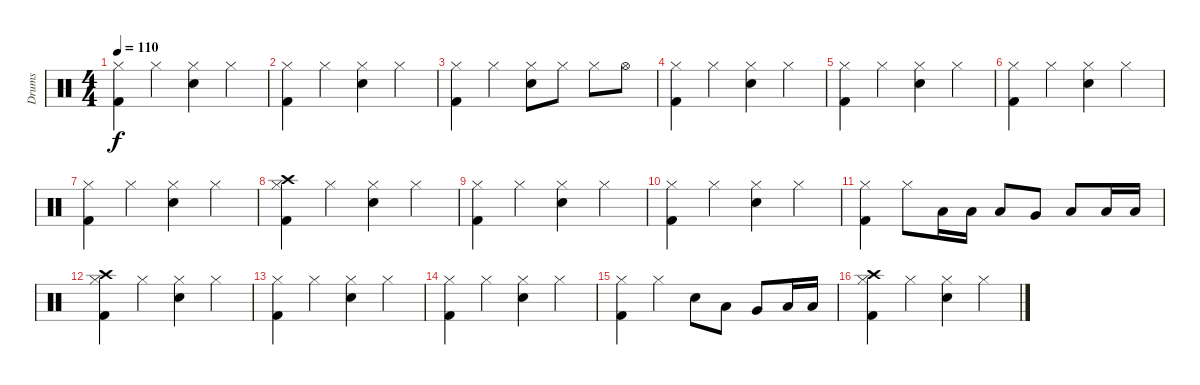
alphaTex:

\track ("Drums" "Drums") {instrument percussion}
\staff {score}
\articulation defaults
\ts (4 4)
\tempo 110
\clef neutral
\ks c
("Kick (hit) 2" "Hi-Hat (closed)").4{dy f} "Hi-Hat (closed)".4 ("Snare (hit) 2" "Hi-Hat (closed)").4 "Hi-Hat (closed)".4 |
("Kick (hit) 2" "Hi-Hat (closed)").4 "Hi-Hat (closed)".4 ("Snare (hit) 2" "Hi-Hat (closed)").4 "Hi-Hat (closed)".4 |
("Kick (hit) 2" "Hi-Hat (closed)").4 "Hi-Hat (closed)".4 ("Snare (hit) 2" "Hi-Hat (closed)").8 "Hi-Hat (closed)".8 "Hi-Hat (closed)".8 "Hi-Hat (open)".8 |
("Kick (hit) 2" "Hi-Hat (closed)").4 "Hi-Hat (closed)".4 ("Snare (hit) 2" "Hi-Hat (closed)").4 "Hi-Hat (closed)".4 |
("Kick (hit) 2" "Hi-Hat (closed)").4 "Hi-Hat (closed)".4 ("Snare (hit) 2" "Hi-Hat (closed)").4 "Hi-Hat (closed)".4 |
("Kick (hit) 2" "Hi-Hat (closed)").4 "Hi-Hat (closed)".4 ("Snare (hit) 2" "Hi-Hat (closed)").4 "Hi-Hat (closed)".4 |
("Kick (hit) 2" "Hi-Hat (closed)").4 "Hi-Hat (closed)".4 ("Snare (hit) 2" "Hi-Hat (closed)").4 "Hi-Hat (closed)".4 |
("Kick (hit) 2" "Hi-Hat (closed)" "Crash high (hit)").4 "Hi-Hat (closed)".4 ("Snare (hit) 2" "Hi-Hat (closed)").4 "Hi-Hat (closed)".4 |
("Kick (hit) 2" "Hi-Hat (closed)").4 "Hi-Hat (closed)".4 ("Snare (hit) 2" "Hi-Hat (closed)").4 "Hi-Hat (closed)".4 |
("Kick (hit) 2" "Hi-Hat (closed)").4 "Hi-Hat (closed)".4 ("Snare (hit) 2" "Hi-Hat (closed)").4 "Hi-Hat (closed)".4 |
("Kick (hit) 2" "Hi-Hat (closed)").4 "Hi-Hat (closed)".8 "Low Tom (hit)".16 "Low Tom (hit)".16 "Low Tom (hit)".8 "Very Low Tom (hit)".8 "Low Floor Tom (hit)".8 "Low Floor Tom (hit)".16 "Low Floor Tom (hit)".16 |
("Kick (hit) 2" "Hi-Hat (closed)" "Crash high (hit)").4 "Hi-Hat (closed)".4 ("Snare (hit) 2" "Hi-Hat (closed)").4 "Hi-Hat (closed)".4 |
("Kick (hit) 2" "Hi-Hat (closed)").4 "Hi-Hat (closed)".4 ("Snare (hit) 2" "Hi-Hat (closed)").4 "Hi-Hat (closed)".4 |
("Kick (hit) 2" "Hi-Hat (closed)").4 "Hi-Hat (closed)".4 ("Snare (hit) 2" "Hi-Hat (closed)").4 "Hi-Hat (closed)".4 |
("Kick (hit) 2" "Hi-Hat (closed)").4 "Hi-Hat (closed)".4 "Snare (hit) 2".8 "Low Tom (hit)".8 "Very Low Tom (hit)".8 "Low Floor Tom (hit)".16 "Low Floor Tom (hit)".16 |
("Kick (hit) 2" "Hi-Hat (closed)" "Crash high (hit)").4 "Hi-Hat (closed)".4 ("Snare (hit) 2" "Hi-Hat (closed)").4 "Hi-Hat (closed)".4
